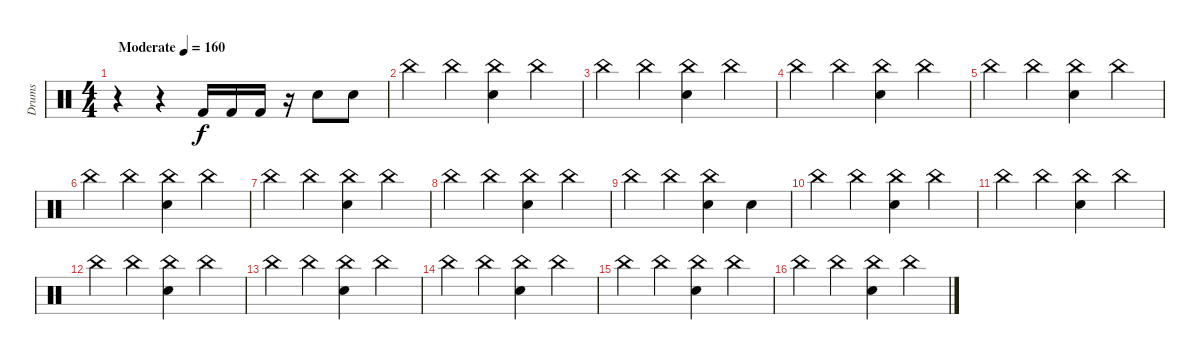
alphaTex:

\track ("Drums" "Drums") {instrument percussion}
\staff {score}
\articulation defaults
\ts (4 4)
\tempo (160 "Moderate")
\clef neutral
\ks c
r.4{dy f} r.4 "Kick (hit) 2".16 "Kick (hit) 2".16 "Kick (hit) 2".16 r.16 "Electric Snare (hit)".8 "Electric Snare (hit)".8 |
"China (hit)".4 "China (hit)".4 ("China (hit)" "Electric Snare (hit)").4 "China (hit)".4 |
"China (hit)".4 "China (hit)".4 ("China (hit)" "Electric Snare (hit)").4 "China (hit)".4 |
"China (hit)".4 "China (hit)".4 ("China (hit)" "Electric Snare (hit)").4 "China (hit)".4 |
"China (hit)".4 "China (hit)".4 ("China (hit)" "Electric Snare (hit)").4 "China (hit)".4 |
"China (hit)".4 "China (hit)".4 ("China (hit)" "Electric Snare (hit)").4 "China (hit)".4 |
"China (hit)".4 "China (hit)".4 ("China (hit)" "Electric Snare (hit)").4 "China (hit)".4 |
"China (hit)".4 "China (hit)".4 ("China (hit)" "Electric Snare (hit)").4 "China (hit)".4 |
"China (hit)".4 "China (hit)".4 ("China (hit)" "Electric Snare (hit)").4 "Electric Snare (hit)".4 |
"China (hit)".4 "China (hit)".4 ("China (hit)" "Electric Snare (hit)").4 "China (hit)".4 |
"China (hit)".4 "China (hit)".4 ("China (hit)" "Electric Snare (hit)").4 "China (hit)".4 |
"China (hit)".4 "China (hit)".4 ("China (hit)" "Electric Snare (hit)").4 "China (hit)".4 |
"China (hit)".4 "China (hit)".4 ("China (hit)" "Electric Snare (hit)").4 "China (hit)".4 |
"China (hit)".4 "China (hit)".4 ("China (hit)" "Electric Snare (hit)").4 "China (hit)".4 |
"China (hit)".4 "China (hit)".4 ("China (hit)" "Electric Snare (hit)").4 "China (hit)".4 |
"China (hit)".4 "China (hit)".4 ("China (hit)" "Electric Snare (hit)").4 "China (hit)".4
